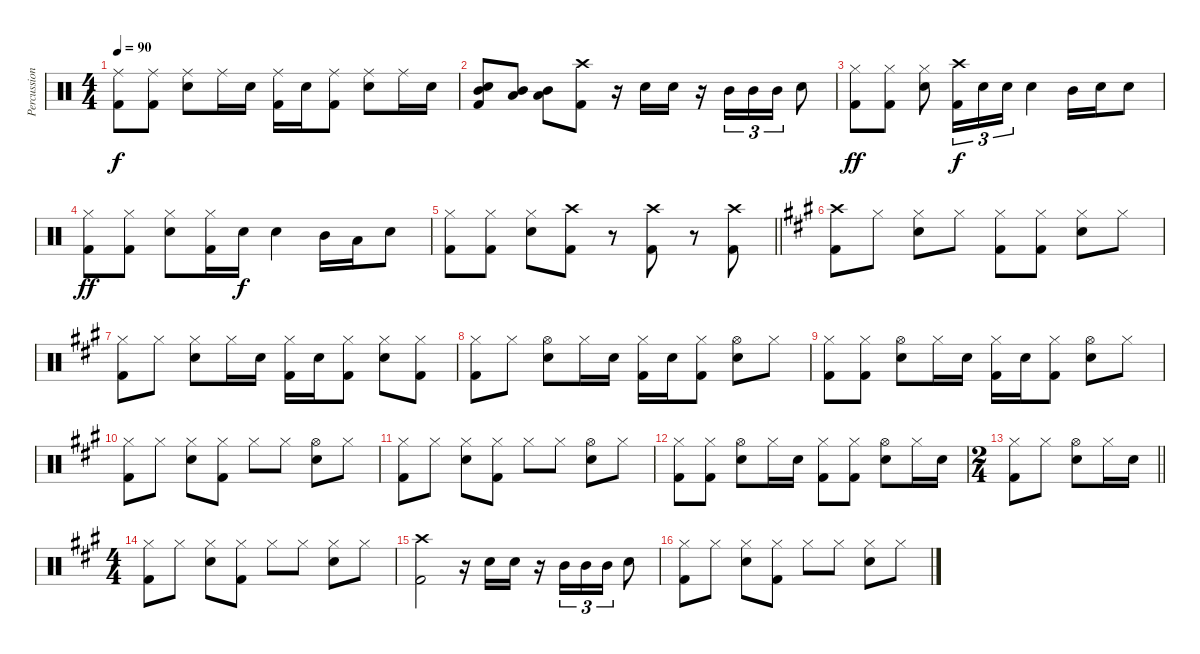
\track ("Percussion" "Percussion") {instrument percussion}
\staff {score}
\articulation defaults
\ts (4 4)
\tempo 90
\clef neutral
\ks c
("Ride (middle)" "Kick (hit) 2").8{dy f} ("Ride (middle)" "Kick (hit) 2").8 ("Ride (middle)" "Snare (hit) 2").8 "Ride (middle)".16 "Snare (hit) 2".16 ("Ride (middle)" "Kick (hit) 2").16 "Snare (hit) 2".16 ("Ride (middle)" "Kick (hit) 2").8 ("Ride (middle)" "Snare (hit) 2").8 "Ride (middle)".16 "Snare (hit) 2".16 |
("Mid Tom (hit)" "Snare (hit) 2" "Kick (hit) 2").8 ("Mid Tom (hit)" "Low Floor Tom (hit)").8 ("Mid Tom (hit)" "Low Floor Tom (hit)").8 ("Crash high (hit)" "Kick (hit) 2").8 r.16 "Snare (hit) 2".16 "Snare (hit) 2".16 r.16 "Mid Tom (hit)".16{tu (3 2)} "Mid Tom (hit)".16{tu (3 2)} "Mid Tom (hit)".16{tu (3 2)} "Snare (hit) 2".8 |
("Hi-Hat (closed)" "Kick (hit) 2").8{dy ff} ("Hi-Hat (closed)" "Kick (hit) 2").8 ("Hi-Hat (closed)" "Snare (hit) 2").8 ("Crash high (hit)" "Kick (hit) 2").16{tu (3 2) dy f} "Snare (hit) 2".16{tu (3 2)} "Snare (hit) 2".16{tu (3 2)} "Snare (hit) 2".4 "Mid Tom (hit)".16 "Snare (hit) 2".16 "Snare (hit) 2".8 |
("Hi-Hat (closed)" "Kick (hit) 2").8{dy ff} ("Hi-Hat (closed)" "Kick (hit) 2").8 ("Hi-Hat (closed)" "Snare (hit) 2").8 ("Hi-Hat (closed)" "Kick (hit) 2").16 "Snare (hit) 2".16{dy f} "Snare (hit) 2".4 "Mid Tom (hit)".16 "Low Floor Tom (hit)".16 "Snare (hit) 2".8 |
\barLineRight lightlight
("Hi-Hat (closed)" "Kick (hit) 2").8 ("Hi-Hat (closed)" "Kick (hit) 2").8 ("Hi-Hat (closed)" "Snare (hit) 2").8 ("Crash high (hit)" "Kick (hit) 2").8 r.8 ("Crash high (hit)" "Kick (hit) 2").8 r.8 ("Crash high (hit)" "Kick (hit) 2").8 |
\ks a
("Crash high (hit)" "Kick (hit) 2").8 "Hi-Hat (closed)".8 ("Hi-Hat (closed)" "Snare (hit) 2").8 "Hi-Hat (closed)".8 ("Hi-Hat (closed)" "Kick (hit) 2").8 ("Hi-Hat (closed)" "Kick (hit) 2").8 ("Hi-Hat (closed)" "Snare (hit) 2").8 "Hi-Hat (closed)".8 |
("Hi-Hat (closed)" "Kick (hit) 2").8 "Hi-Hat (closed)".8 ("Hi-Hat (closed)" "Snare (hit) 2").8 "Hi-Hat (closed)".16 "Snare (hit) 2".16 ("Hi-Hat (closed)" "Kick (hit) 2").16 "Snare (hit) 2".16 ("Hi-Hat (closed)" "Kick (hit) 2").8 ("Hi-Hat (closed)" "Snare (hit) 2").8 ("Hi-Hat (closed)" "Kick (hit) 2").8 |
("Hi-Hat (closed)" "Kick (hit) 2").8 "Hi-Hat (closed)".8 ("Hi-Hat (open)" "Snare (hit) 2").8 "Hi-Hat (closed)".16 "Snare (hit) 2".16 ("Hi-Hat (closed)" "Kick (hit) 2").16 "Snare (hit) 2".16 ("Hi-Hat (closed)" "Kick (hit) 2").8 ("Hi-Hat (open)" "Snare (hit) 2").8 "Hi-Hat (closed)".8 |
("Hi-Hat (closed)" "Kick (hit) 2").8 ("Hi-Hat (closed)" "Kick (hit) 2").8 ("Hi-Hat (open)" "Snare (hit) 2").8 "Hi-Hat (closed)".16 "Snare (hit) 2".16 ("Hi-Hat (closed)" "Kick (hit) 2").16 "Snare (hit) 2".16 ("Hi-Hat (closed)" "Kick (hit) 2").8 ("Hi-Hat (open)" "Snare (hit) 2").8 "Hi-Hat (closed)".8 |
("Hi-Hat (closed)" "Kick (hit) 2").8 "Hi-Hat (closed)".8 ("Hi-Hat (closed)" "Snare (hit) 2").8 ("Hi-Hat (closed)" "Kick (hit) 2").8 "Hi-Hat (closed)".8 "Hi-Hat (closed)".8 ("Hi-Hat (open)" "Snare (hit) 2").8 "Hi-Hat (closed)".8 |
("Hi-Hat (closed)" "Kick (hit) 2").8 "Hi-Hat (closed)".8 ("Hi-Hat (closed)" "Snare (hit) 2").8 ("Hi-Hat (closed)" "Kick (hit) 2").8 "Hi-Hat (closed)".8 "Hi-Hat (closed)".8 ("Hi-Hat (open)" "Snare (hit) 2").8 "Hi-Hat (closed)".8 |
("Hi-Hat (closed)" "Kick (hit) 2").8 ("Hi-Hat (closed)" "Kick (hit) 2").8 ("Hi-Hat (open)" "Snare (hit) 2").8 "Hi-Hat (closed)".16 "Snare (hit) 2".16 ("Hi-Hat (closed)" "Kick (hit) 2").8 ("Hi-Hat (closed)" "Kick (hit) 2").8 ("Hi-Hat (open)" "Snare (hit) 2").8 "Hi-Hat (closed)".16 "Snare (hit) 2".16 |
\ts (2 4)
\barLineRight lightlight
("Hi-Hat (closed)" "Kick (hit) 2").8 "Hi-Hat (closed)".8 ("Hi-Hat (open)" "Snare (hit) 2").8 "Hi-Hat (closed)".16 "Snare (hit) 2".16 |
\ts (4 4)
("Hi-Hat (closed)" "Kick (hit) 2").8 "Hi-Hat (closed)".8 ("Hi-Hat (closed)" "Snare (hit) 2").8 ("Hi-Hat (closed)" "Kick (hit) 2").8 "Hi-Hat (closed)".8 "Hi-Hat (closed)".8 ("Hi-Hat (closed)" "Snare (hit) 2").8 "Hi-Hat (closed)".8 |
("Crash high (hit)" "Kick (hit) 2").2 r.16 "Snare (hit) 2".16 "Snare (hit) 2".16 r.16 "Mid Tom (hit)".16{tu (3 2)} "Mid Tom (hit)".16{tu (3 2)} "Mid Tom (hit)".16{tu (3 2)} "Snare (hit) 2".8 |
("Hi-Hat (closed)" "Kick (hit) 2").8 "Hi-Hat (closed)".8 ("Hi-Hat (closed)" "Snare (hit) 2").8 ("Hi-Hat (closed)" "Kick (hit) 2").8 "Hi-Hat (closed)".8 "Hi-Hat (closed)".8 ("Hi-Hat (closed)" "Snare (hit) 2").8 "Hi-Hat (closed)".8
